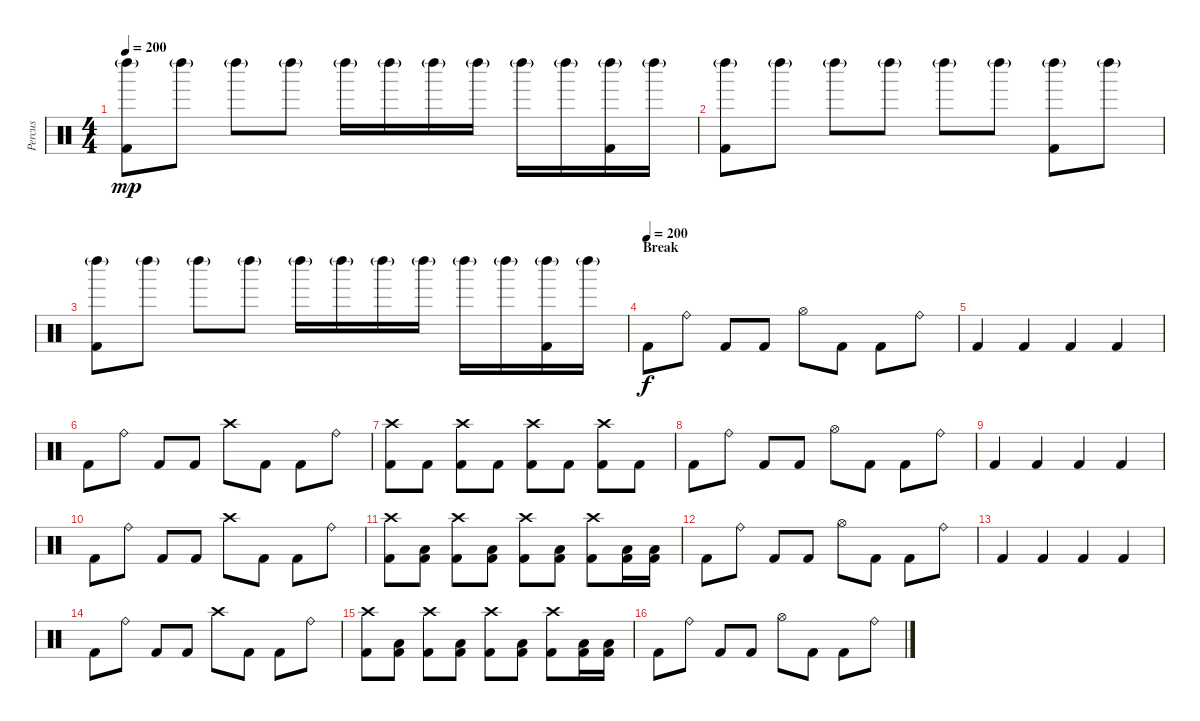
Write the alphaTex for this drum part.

\track ("Percus" "Percus") {instrument percussion}
\staff {score}
\articulation defaults
\ts (4 4)
\tempo 200
\clef neutral
\ks c
("Left Maraca (hit)"{g} "Kick (hit) 2").8{dy mp} "Left Maraca (hit)"{g}.8 "Left Maraca (hit)"{g}.8 "Left Maraca (hit)"{g}.8 "Left Maraca (hit)"{g}.16 "Left Maraca (hit)"{g}.16 "Left Maraca (hit)"{g}.16 "Left Maraca (hit)"{g}.16 "Left Maraca (hit)"{g}.16 "Left Maraca (hit)"{g}.16 ("Left Maraca (hit)"{g} "Kick (hit) 2").16 "Left Maraca (hit)"{g}.16 |
("Left Maraca (hit)"{g} "Kick (hit) 2").8 "Left Maraca (hit)"{g}.8 "Left Maraca (hit)"{g}.8 "Left Maraca (hit)"{g}.8 "Left Maraca (hit)"{g}.8 "Left Maraca (hit)"{g}.8 ("Left Maraca (hit)"{g} "Kick (hit) 2").8 "Left Maraca (hit)"{g}.8 |
("Left Maraca (hit)"{g} "Kick (hit) 2").8 "Left Maraca (hit)"{g}.8 "Left Maraca (hit)"{g}.8 "Left Maraca (hit)"{g}.8 "Left Maraca (hit)"{g}.16 "Left Maraca (hit)"{g}.16 "Left Maraca (hit)"{g}.16 "Left Maraca (hit)"{g}.16 "Left Maraca (hit)"{g}.16 "Left Maraca (hit)"{g}.16 ("Left Maraca (hit)"{g} "Kick (hit) 2").16 "Left Maraca (hit)"{g}.16 |
\section ("" "Break")
\tempo (200)
"Kick (hit) 2".8{dy f} "Ride (bell)".8 "Kick (hit) 2".8 "Kick (hit) 2".8 "Hi-Hat (open)".8 "Kick (hit) 2".8 "Kick (hit) 2".8 "Ride (bell)".8 |
"Kick (hit) 2".4 "Kick (hit) 2".4 "Kick (hit) 2".4 "Kick (hit) 2".4 |
"Kick (hit) 2".8 "Ride (bell)".8 "Kick (hit) 2".8 "Kick (hit) 2".8 "Crash high (hit)".8 "Kick (hit) 2".8 "Kick (hit) 2".8 "Ride (bell)".8 |
("Crash high (hit)" "Kick (hit) 2").8 "Kick (hit) 2".8 ("Crash high (hit)" "Kick (hit) 2").8 "Kick (hit) 2".8 ("Crash high (hit)" "Kick (hit) 2").8 "Kick (hit) 2".8 ("Crash high (hit)" "Kick (hit) 2").8 "Kick (hit) 2".8 |
"Kick (hit) 2".8 "Ride (bell)".8 "Kick (hit) 2".8 "Kick (hit) 2".8 "Hi-Hat (open)".8 "Kick (hit) 2".8 "Kick (hit) 2".8 "Ride (bell)".8 |
"Kick (hit) 2".4 "Kick (hit) 2".4 "Kick (hit) 2".4 "Kick (hit) 2".4 |
"Kick (hit) 2".8 "Ride (bell)".8 "Kick (hit) 2".8 "Kick (hit) 2".8 "Crash high (hit)".8 "Kick (hit) 2".8 "Kick (hit) 2".8 "Ride (bell)".8 |
("Crash high (hit)" "Kick (hit) 2").8 ("Low Floor Tom (hit)" "Kick (hit) 2").8 ("Crash high (hit)" "Kick (hit) 2").8 ("Low Floor Tom (hit)" "Kick (hit) 2").8 ("Crash high (hit)" "Kick (hit) 2").8 ("Low Floor Tom (hit)" "Kick (hit) 2").8 ("Crash high (hit)" "Kick (hit) 2").8 ("Low Floor Tom (hit)" "Kick (hit) 2").16 ("Low Floor Tom (hit)" "Kick (hit) 2").16 |
"Kick (hit) 2".8 "Ride (bell)".8 "Kick (hit) 2".8 "Kick (hit) 2".8 "Hi-Hat (open)".8 "Kick (hit) 2".8 "Kick (hit) 2".8 "Ride (bell)".8 |
"Kick (hit) 2".4 "Kick (hit) 2".4 "Kick (hit) 2".4 "Kick (hit) 2".4 |
"Kick (hit) 2".8 "Ride (bell)".8 "Kick (hit) 2".8 "Kick (hit) 2".8 "Crash high (hit)".8 "Kick (hit) 2".8 "Kick (hit) 2".8 "Ride (bell)".8 |
("Crash high (hit)" "Kick (hit) 2").8 ("Low Floor Tom (hit)" "Kick (hit) 2").8 ("Crash high (hit)" "Kick (hit) 2").8 ("Low Floor Tom (hit)" "Kick (hit) 2").8 ("Crash high (hit)" "Kick (hit) 2").8 ("Low Floor Tom (hit)" "Kick (hit) 2").8 ("Crash high (hit)" "Kick (hit) 2").8 ("Low Floor Tom (hit)" "Kick (hit) 2").16 ("Low Floor Tom (hit)" "Kick (hit) 2").16 |
"Kick (hit) 2".8 "Ride (bell)".8 "Kick (hit) 2".8 "Kick (hit) 2".8 "Hi-Hat (open)".8 "Kick (hit) 2".8 "Kick (hit) 2".8 "Ride (bell)".8
